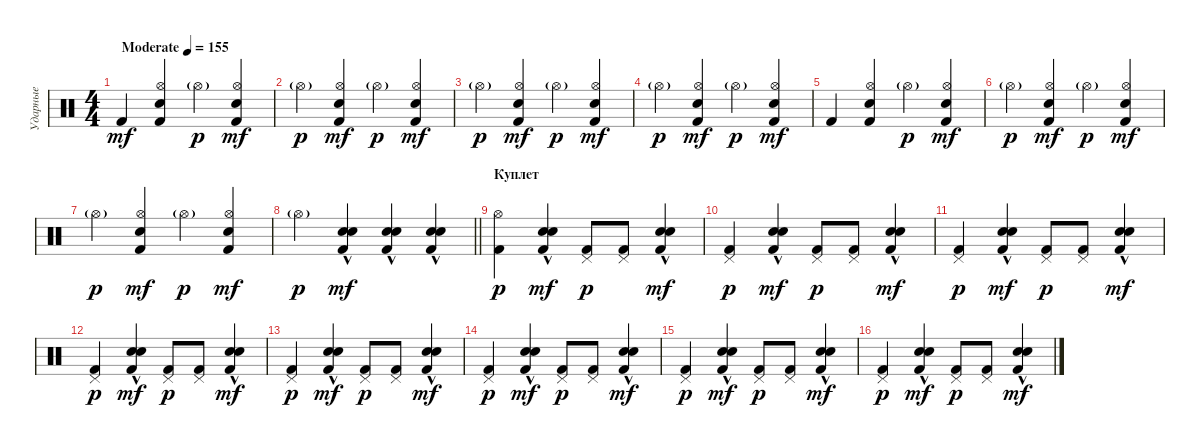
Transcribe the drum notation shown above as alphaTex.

\track ("Ударные" "Ударные") {instrument percussion}
\staff {score}
\articulation defaults
\ts (4 4)
\tempo (155 "Moderate")
\clef neutral
\ks c "Kick (hit) 2".4{dy mf}
("Hi-Hat (open)" "Kick (hit) 2" "Snare (hit) 2").4 "Hi-Hat (open)"{g}.4{dy p} ("Hi-Hat (open)" "Kick (hit) 2" "Snare (hit) 2").4{dy mf} |
"Hi-Hat (open)"{g}.4{dy p} ("Hi-Hat (open)" "Kick (hit) 2" "Snare (hit) 2").4{dy mf} "Hi-Hat (open)"{g}.4{dy p} ("Hi-Hat (open)" "Kick (hit) 2" "Snare (hit) 2").4{dy mf} |
"Hi-Hat (open)"{g}.4{dy p} ("Hi-Hat (open)" "Kick (hit) 2" "Snare (hit) 2").4{dy mf} "Hi-Hat (open)"{g}.4{dy p} ("Hi-Hat (open)" "Kick (hit) 2" "Snare (hit) 2").4{dy mf} |
"Hi-Hat (open)"{g}.4{dy p} ("Hi-Hat (open)" "Kick (hit) 2" "Snare (hit) 2").4{dy mf} "Hi-Hat (open)"{g}.4{dy p} ("Hi-Hat (open)" "Kick (hit) 2" "Snare (hit) 2").4{dy mf} |
"Kick (hit) 2".4 ("Hi-Hat (open)" "Kick (hit) 2" "Snare (hit) 2").4 "Hi-Hat (open)"{g}.4{dy p} ("Hi-Hat (open)" "Kick (hit) 2" "Snare (hit) 2").4{dy mf} |
"Hi-Hat (open)"{g}.4{dy p} ("Hi-Hat (open)" "Kick (hit) 2" "Snare (hit) 2").4{dy mf} "Hi-Hat (open)"{g}.4{dy p} ("Hi-Hat (open)" "Kick (hit) 2" "Snare (hit) 2").4{dy mf} |
"Hi-Hat (open)"{g}.4{dy p} ("Hi-Hat (open)" "Kick (hit) 2" "Snare (hit) 2").4{dy mf} "Hi-Hat (open)"{g}.4{dy p} ("Hi-Hat (open)" "Kick (hit) 2" "Snare (hit) 2").4{dy mf} |
\barLineRight lightlight "Hi-Hat (open)"{g}.4{dy p}
("Electric Snare (hit)"{hac} "Kick (hit) 2" "Snare (hit) 2"{hac}).4{dy mf} ("Electric Snare (hit)"{hac} "Kick (hit) 2" "Snare (hit) 2"{hac}).4 ("Electric Snare (hit)"{hac} "Kick (hit) 2" "Snare (hit) 2"{hac}).4 |
\section ("" "Куплет")
("Kick (hit) 2" "Hi-Hat (open)").4{dy p} ("Electric Snare (hit)"{hac} "Kick (hit) 2" "Snare (hit) 2"{hac}).4{dy mf} ("Pedal Hi-Hat (hit)" "Kick (hit) 2").8{dy p} ("Pedal Hi-Hat (hit)" "Kick (hit) 2").8 ("Electric Snare (hit)"{hac} "Kick (hit) 2" "Snare (hit) 2"{hac}).4{dy mf} |
("Pedal Hi-Hat (hit)" "Kick (hit) 2").4{dy p} ("Electric Snare (hit)"{hac} "Kick (hit) 2" "Snare (hit) 2"{hac}).4{dy mf} ("Pedal Hi-Hat (hit)" "Kick (hit) 2").8{dy p} ("Pedal Hi-Hat (hit)" "Kick (hit) 2").8 ("Electric Snare (hit)"{hac} "Kick (hit) 2" "Snare (hit) 2"{hac}).4{dy mf} |
("Pedal Hi-Hat (hit)" "Kick (hit) 2").4{dy p} ("Electric Snare (hit)"{hac} "Kick (hit) 2" "Snare (hit) 2"{hac}).4{dy mf} ("Pedal Hi-Hat (hit)" "Kick (hit) 2").8{dy p} ("Pedal Hi-Hat (hit)" "Kick (hit) 2").8 ("Electric Snare (hit)"{hac} "Kick (hit) 2" "Snare (hit) 2"{hac}).4{dy mf} |
("Pedal Hi-Hat (hit)" "Kick (hit) 2").4{dy p} ("Electric Snare (hit)"{hac} "Kick (hit) 2" "Snare (hit) 2"{hac}).4{dy mf} ("Pedal Hi-Hat (hit)" "Kick (hit) 2").8{dy p} ("Pedal Hi-Hat (hit)" "Kick (hit) 2").8 ("Electric Snare (hit)"{hac} "Kick (hit) 2" "Snare (hit) 2"{hac}).4{dy mf} |
("Kick (hit) 2" "Pedal Hi-Hat (hit)").4{dy p} ("Electric Snare (hit)"{hac} "Kick (hit) 2" "Snare (hit) 2"{hac}).4{dy mf} ("Pedal Hi-Hat (hit)" "Kick (hit) 2").8{dy p} ("Pedal Hi-Hat (hit)" "Kick (hit) 2").8 ("Electric Snare (hit)"{hac} "Kick (hit) 2" "Snare (hit) 2"{hac}).4{dy mf} |
("Pedal Hi-Hat (hit)" "Kick (hit) 2").4{dy p} ("Electric Snare (hit)"{hac} "Kick (hit) 2" "Snare (hit) 2"{hac}).4{dy mf} ("Pedal Hi-Hat (hit)" "Kick (hit) 2").8{dy p} ("Pedal Hi-Hat (hit)" "Kick (hit) 2").8 ("Electric Snare (hit)"{hac} "Kick (hit) 2" "Snare (hit) 2"{hac}).4{dy mf} |
("Pedal Hi-Hat (hit)" "Kick (hit) 2").4{dy p} ("Electric Snare (hit)"{hac} "Kick (hit) 2" "Snare (hit) 2"{hac}).4{dy mf} ("Pedal Hi-Hat (hit)" "Kick (hit) 2").8{dy p} ("Pedal Hi-Hat (hit)" "Kick (hit) 2").8 ("Electric Snare (hit)"{hac} "Kick (hit) 2" "Snare (hit) 2"{hac}).4{dy mf} |
("Pedal Hi-Hat (hit)" "Kick (hit) 2").4{dy p} ("Electric Snare (hit)"{hac} "Kick (hit) 2" "Snare (hit) 2"{hac}).4{dy mf} ("Pedal Hi-Hat (hit)" "Kick (hit) 2").8{dy p} ("Pedal Hi-Hat (hit)" "Kick (hit) 2").8 ("Electric Snare (hit)"{hac} "Kick (hit) 2" "Snare (hit) 2"{hac}).4{dy mf}
